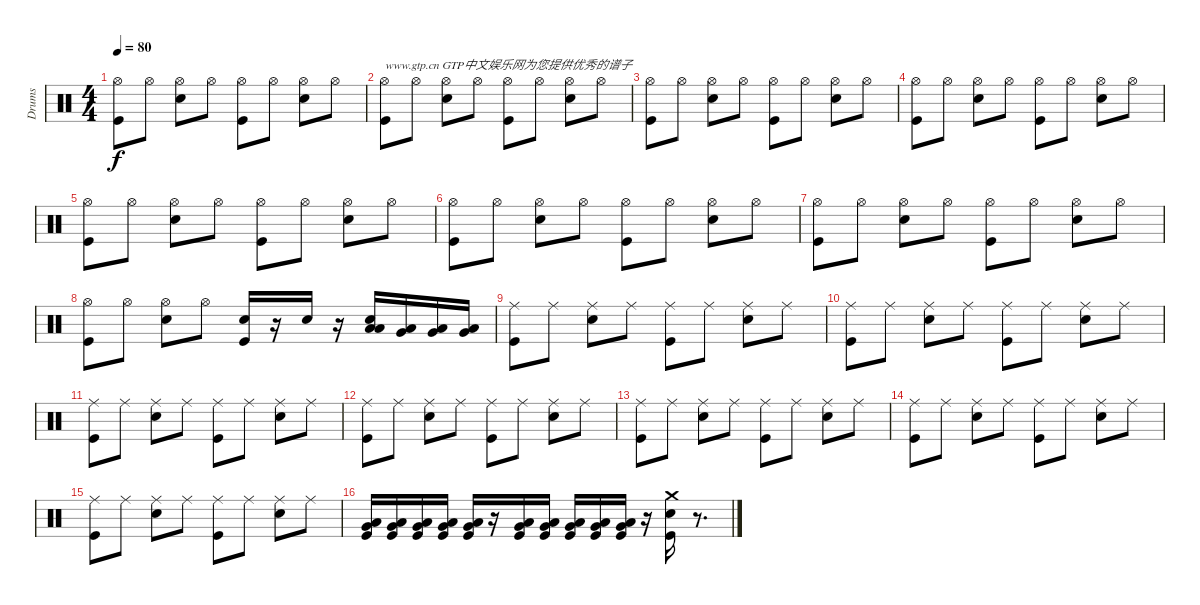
\track ("Drums" "Drums") {instrument percussion}
\staff {score}
\articulation defaults
\ts (4 4)
\tempo 80
\clef neutral
\ks c
("Hi-Hat (open)" "Kick (hit)").8{dy f} "Hi-Hat (open)".8 ("Snare (hit) 2" "Hi-Hat (open)").8 "Hi-Hat (open)".8 ("Hi-Hat (open)" "Kick (hit)").8 "Hi-Hat (open)".8 ("Snare (hit) 2" "Hi-Hat (open)").8 "Hi-Hat (open)".8 |
("Hi-Hat (open)" "Kick (hit)").8{txt "www.gtp.cn GTP中文娱乐网为您提供优秀的谱子"} "Hi-Hat (open)".8 ("Snare (hit) 2" "Hi-Hat (open)").8 "Hi-Hat (open)".8 ("Hi-Hat (open)" "Kick (hit)").8 "Hi-Hat (open)".8 ("Snare (hit) 2" "Hi-Hat (open)").8 "Hi-Hat (open)".8 |
("Hi-Hat (open)" "Kick (hit)").8 "Hi-Hat (open)".8 ("Snare (hit) 2" "Hi-Hat (open)").8 "Hi-Hat (open)".8 ("Hi-Hat (open)" "Kick (hit)").8 "Hi-Hat (open)".8 ("Snare (hit) 2" "Hi-Hat (open)").8 "Hi-Hat (open)".8 |
("Hi-Hat (open)" "Kick (hit)").8 "Hi-Hat (open)".8 ("Snare (hit) 2" "Hi-Hat (open)").8 "Hi-Hat (open)".8 ("Hi-Hat (open)" "Kick (hit)").8 "Hi-Hat (open)".8 ("Snare (hit) 2" "Hi-Hat (open)").8 "Hi-Hat (open)".8 |
("Hi-Hat (open)" "Kick (hit)").8 "Hi-Hat (open)".8 ("Snare (hit) 2" "Hi-Hat (open)").8 "Hi-Hat (open)".8 ("Hi-Hat (open)" "Kick (hit)").8 "Hi-Hat (open)".8 ("Snare (hit) 2" "Hi-Hat (open)").8 "Hi-Hat (open)".8 |
("Hi-Hat (open)" "Kick (hit)").8 "Hi-Hat (open)".8 ("Snare (hit) 2" "Hi-Hat (open)").8 "Hi-Hat (open)".8 ("Hi-Hat (open)" "Kick (hit)").8 "Hi-Hat (open)".8 ("Snare (hit) 2" "Hi-Hat (open)").8 "Hi-Hat (open)".8 |
("Hi-Hat (open)" "Kick (hit)").8 "Hi-Hat (open)".8 ("Snare (hit) 2" "Hi-Hat (open)").8 "Hi-Hat (open)".8 ("Hi-Hat (open)" "Kick (hit)").8 "Hi-Hat (open)".8 ("Snare (hit) 2" "Hi-Hat (open)").8 "Hi-Hat (open)".8 |
("Hi-Hat (open)" "Kick (hit)").8 "Hi-Hat (open)".8 ("Hi-Hat (open)" "Snare (hit) 2").8 "Hi-Hat (open)".8 ("Snare (hit) 2" "Kick (hit)").16 r.16 "Snare (hit) 2".16 r.16 ("Snare (hit) 2" "Low Tom (hit)" "Low Floor Tom (hit)").16 ("Low Tom (hit)" "Very Low Tom (hit)").16 ("Very Low Tom (hit)" "Low Tom (hit)").16 ("Very Low Tom (hit)" "Low Floor Tom (hit)").16 |
("Ride (middle)" "Kick (hit)").8 "Ride (middle)".8 ("Ride (middle)" "Snare (hit) 2").8 "Ride (middle)".8 ("Ride (middle)" "Kick (hit)").8 "Ride (middle)".8 ("Ride (middle)" "Snare (hit) 2").8 "Ride (middle)".8 |
("Ride (middle)" "Kick (hit)").8 "Ride (middle)".8 ("Ride (middle)" "Snare (hit) 2").8 "Ride (middle)".8 ("Ride (middle)" "Kick (hit)").8 "Ride (middle)".8 ("Ride (middle)" "Snare (hit) 2").8 "Ride (middle)".8 |
("Ride (middle)" "Kick (hit)").8 "Ride (middle)".8 ("Ride (middle)" "Snare (hit) 2").8 "Ride (middle)".8 ("Ride (middle)" "Kick (hit)").8 "Ride (middle)".8 ("Ride (middle)" "Snare (hit) 2").8 "Ride (middle)".8 |
("Ride (middle)" "Kick (hit)").8 "Ride (middle)".8 ("Ride (middle)" "Snare (hit) 2").8 "Ride (middle)".8 ("Ride (middle)" "Kick (hit)").8 "Ride (middle)".8 ("Ride (middle)" "Snare (hit) 2").8 "Ride (middle)".8 |
("Ride (middle)" "Kick (hit)").8 "Ride (middle)".8 ("Ride (middle)" "Snare (hit) 2").8 "Ride (middle)".8 ("Ride (middle)" "Kick (hit)").8 "Ride (middle)".8 ("Ride (middle)" "Snare (hit) 2").8 "Ride (middle)".8 |
("Ride (middle)" "Kick (hit)").8 "Ride (middle)".8 ("Ride (middle)" "Snare (hit) 2").8 "Ride (middle)".8 ("Ride (middle)" "Kick (hit)").8 "Ride (middle)".8 ("Ride (middle)" "Snare (hit) 2").8 "Ride (middle)".8 |
("Ride (middle)" "Kick (hit)").8 "Ride (middle)".8 ("Ride (middle)" "Snare (hit) 2").8 "Ride (middle)".8 ("Ride (middle)" "Kick (hit)").8 "Ride (middle)".8 ("Ride (middle)" "Snare (hit) 2").8 "Ride (middle)".8 |
("Very Low Tom (hit)" "Low Floor Tom (hit)" "Kick (hit)").16 ("Very Low Tom (hit)" "Low Floor Tom (hit)" "Kick (hit)").16 ("Very Low Tom (hit)" "Low Floor Tom (hit)" "Kick (hit)").16 ("Very Low Tom (hit)" "Low Floor Tom (hit)" "Kick (hit)").16 ("Very Low Tom (hit)" "Low Floor Tom (hit)" "Kick (hit)").16 r.16 ("Very Low Tom (hit)" "Low Floor Tom (hit)" "Kick (hit)").16 ("Very Low Tom (hit)" "Low Floor Tom (hit)" "Kick (hit)").16 ("Very Low Tom (hit)" "Low Floor Tom (hit)" "Kick (hit)").16 ("Very Low Tom (hit)" "Low Floor Tom (hit)" "Kick (hit)").16 ("Very Low Tom (hit)" "Low Floor Tom (hit)" "Kick (hit)").16 r.16 ("Snare (hit) 2" "Crash medium (hit)" "Kick (hit)").16 r.8{d}
